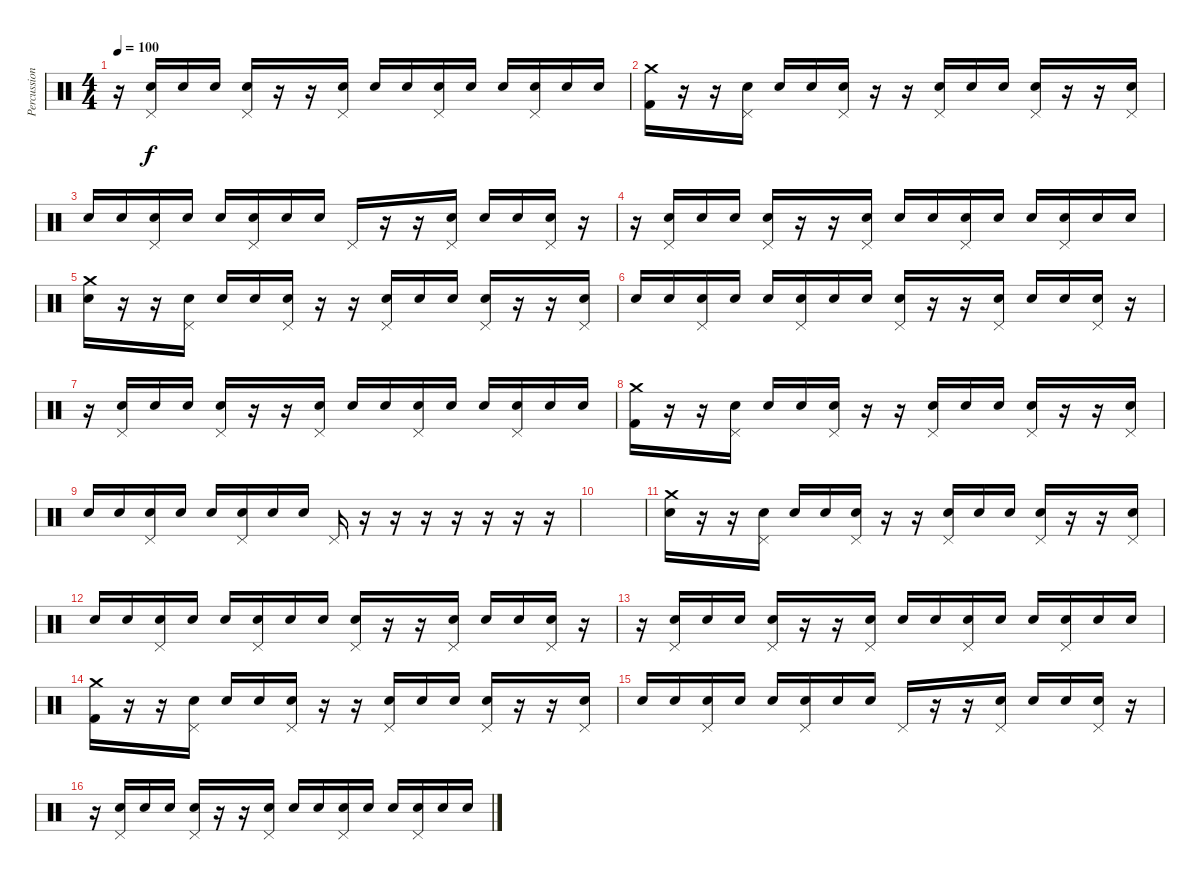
\track ("Percussion" "Percussion") {instrument percussion}
\staff {score}
\articulation defaults
\ts (4 4)
\tempo 100
\clef neutral
\ks c
r.16{dy f} ("Pedal Hi-Hat (hit)" "Snare (hit) 2").16 "Snare (hit) 2".16 "Snare (hit) 2".16 ("Pedal Hi-Hat (hit)" "Snare (hit) 2").16 r.16 r.16 ("Pedal Hi-Hat (hit)" "Snare (hit) 2").16 "Snare (hit) 2".16 "Snare (hit) 2".16 ("Pedal Hi-Hat (hit)" "Snare (hit) 2").16 "Snare (hit) 2".16 "Snare (hit) 2".16 ("Pedal Hi-Hat (hit)" "Snare (hit) 2").16 "Snare (hit) 2".16 "Snare (hit) 2".16 |
("Crash medium (hit)" "Kick (hit) 2").16 r.16 r.16 ("Pedal Hi-Hat (hit)" "Snare (hit) 2").16 "Snare (hit) 2".16 "Snare (hit) 2".16 ("Pedal Hi-Hat (hit)" "Snare (hit) 2").16 r.16 r.16 ("Pedal Hi-Hat (hit)" "Snare (hit) 2").16 "Snare (hit) 2".16 "Snare (hit) 2".16 ("Pedal Hi-Hat (hit)" "Snare (hit) 2").16 r.16 r.16 ("Pedal Hi-Hat (hit)" "Snare (hit) 2").16 |
"Snare (hit) 2".16 "Snare (hit) 2".16 ("Pedal Hi-Hat (hit)" "Snare (hit) 2").16 "Snare (hit) 2".16 "Snare (hit) 2".16 ("Pedal Hi-Hat (hit)" "Snare (hit) 2").16 "Snare (hit) 2".16 "Snare (hit) 2".16 "Pedal Hi-Hat (hit)".16 r.16 r.16 ("Pedal Hi-Hat (hit)" "Snare (hit) 2").16 "Snare (hit) 2".16 "Snare (hit) 2".16 ("Pedal Hi-Hat (hit)" "Snare (hit) 2").16 r.16 |
r.16 ("Pedal Hi-Hat (hit)" "Snare (hit) 2").16 "Snare (hit) 2".16 "Snare (hit) 2".16 ("Pedal Hi-Hat (hit)" "Snare (hit) 2").16 r.16 r.16 ("Pedal Hi-Hat (hit)" "Snare (hit) 2").16 "Snare (hit) 2".16 "Snare (hit) 2".16 ("Pedal Hi-Hat (hit)" "Snare (hit) 2").16 "Snare (hit) 2".16 "Snare (hit) 2".16 ("Pedal Hi-Hat (hit)" "Snare (hit) 2").16 "Snare (hit) 2".16 "Snare (hit) 2".16 |
("Crash medium (hit)" "Snare (hit) 2").16 r.16 r.16 ("Pedal Hi-Hat (hit)" "Snare (hit) 2").16 "Snare (hit) 2".16 "Snare (hit) 2".16 ("Pedal Hi-Hat (hit)" "Snare (hit) 2").16 r.16 r.16 ("Pedal Hi-Hat (hit)" "Snare (hit) 2").16 "Snare (hit) 2".16 "Snare (hit) 2".16 ("Pedal Hi-Hat (hit)" "Snare (hit) 2").16 r.16 r.16 ("Pedal Hi-Hat (hit)" "Snare (hit) 2").16 |
"Snare (hit) 2".16 "Snare (hit) 2".16 ("Pedal Hi-Hat (hit)" "Snare (hit) 2").16 "Snare (hit) 2".16 "Snare (hit) 2".16 ("Pedal Hi-Hat (hit)" "Snare (hit) 2").16 "Snare (hit) 2".16 "Snare (hit) 2".16 ("Pedal Hi-Hat (hit)" "Snare (hit) 2").16 r.16 r.16 ("Pedal Hi-Hat (hit)" "Snare (hit) 2").16 "Snare (hit) 2".16 "Snare (hit) 2".16 ("Pedal Hi-Hat (hit)" "Snare (hit) 2").16 r.16 |
r.16 ("Pedal Hi-Hat (hit)" "Snare (hit) 2").16 "Snare (hit) 2".16 "Snare (hit) 2".16 ("Pedal Hi-Hat (hit)" "Snare (hit) 2").16 r.16 r.16 ("Pedal Hi-Hat (hit)" "Snare (hit) 2").16 "Snare (hit) 2".16 "Snare (hit) 2".16 ("Pedal Hi-Hat (hit)" "Snare (hit) 2").16 "Snare (hit) 2".16 "Snare (hit) 2".16 ("Pedal Hi-Hat (hit)" "Snare (hit) 2").16 "Snare (hit) 2".16 "Snare (hit) 2".16 |
("Crash medium (hit)" "Kick (hit) 2").16 r.16 r.16 ("Pedal Hi-Hat (hit)" "Snare (hit) 2").16 "Snare (hit) 2".16 "Snare (hit) 2".16 ("Pedal Hi-Hat (hit)" "Snare (hit) 2").16 r.16 r.16 ("Pedal Hi-Hat (hit)" "Snare (hit) 2").16 "Snare (hit) 2".16 "Snare (hit) 2".16 ("Pedal Hi-Hat (hit)" "Snare (hit) 2").16 r.16 r.16 ("Pedal Hi-Hat (hit)" "Snare (hit) 2").16 |
"Snare (hit) 2".16 "Snare (hit) 2".16 ("Pedal Hi-Hat (hit)" "Snare (hit) 2").16 "Snare (hit) 2".16 "Snare (hit) 2".16 ("Pedal Hi-Hat (hit)" "Snare (hit) 2").16 "Snare (hit) 2".16 "Snare (hit) 2".16 "Pedal Hi-Hat (hit)".16 r.16 r.16 r.16 r.16 r.16 r.16 r.16 |
|
("Crash medium (hit)" "Snare (hit) 2").16 r.16 r.16 ("Pedal Hi-Hat (hit)" "Snare (hit) 2").16 "Snare (hit) 2".16 "Snare (hit) 2".16 ("Pedal Hi-Hat (hit)" "Snare (hit) 2").16 r.16 r.16 ("Pedal Hi-Hat (hit)" "Snare (hit) 2").16 "Snare (hit) 2".16 "Snare (hit) 2".16 ("Pedal Hi-Hat (hit)" "Snare (hit) 2").16 r.16 r.16 ("Pedal Hi-Hat (hit)" "Snare (hit) 2").16 |
"Snare (hit) 2".16 "Snare (hit) 2".16 ("Pedal Hi-Hat (hit)" "Snare (hit) 2").16 "Snare (hit) 2".16 "Snare (hit) 2".16 ("Pedal Hi-Hat (hit)" "Snare (hit) 2").16 "Snare (hit) 2".16 "Snare (hit) 2".16 ("Pedal Hi-Hat (hit)" "Snare (hit) 2").16 r.16 r.16 ("Pedal Hi-Hat (hit)" "Snare (hit) 2").16 "Snare (hit) 2".16 "Snare (hit) 2".16 ("Pedal Hi-Hat (hit)" "Snare (hit) 2").16 r.16 |
r.16 ("Pedal Hi-Hat (hit)" "Snare (hit) 2").16 "Snare (hit) 2".16 "Snare (hit) 2".16 ("Pedal Hi-Hat (hit)" "Snare (hit) 2").16 r.16 r.16 ("Pedal Hi-Hat (hit)" "Snare (hit) 2").16 "Snare (hit) 2".16 "Snare (hit) 2".16 ("Pedal Hi-Hat (hit)" "Snare (hit) 2").16 "Snare (hit) 2".16 "Snare (hit) 2".16 ("Pedal Hi-Hat (hit)" "Snare (hit) 2").16 "Snare (hit) 2".16 "Snare (hit) 2".16 |
("Crash medium (hit)" "Kick (hit) 2").16 r.16 r.16 ("Pedal Hi-Hat (hit)" "Snare (hit) 2").16 "Snare (hit) 2".16 "Snare (hit) 2".16 ("Pedal Hi-Hat (hit)" "Snare (hit) 2").16 r.16 r.16 ("Pedal Hi-Hat (hit)" "Snare (hit) 2").16 "Snare (hit) 2".16 "Snare (hit) 2".16 ("Pedal Hi-Hat (hit)" "Snare (hit) 2").16 r.16 r.16 ("Pedal Hi-Hat (hit)" "Snare (hit) 2").16 |
"Snare (hit) 2".16 "Snare (hit) 2".16 ("Pedal Hi-Hat (hit)" "Snare (hit) 2").16 "Snare (hit) 2".16 "Snare (hit) 2".16 ("Pedal Hi-Hat (hit)" "Snare (hit) 2").16 "Snare (hit) 2".16 "Snare (hit) 2".16 "Pedal Hi-Hat (hit)".16 r.16 r.16 ("Pedal Hi-Hat (hit)" "Snare (hit) 2").16 "Snare (hit) 2".16 "Snare (hit) 2".16 ("Pedal Hi-Hat (hit)" "Snare (hit) 2").16 r.16 |
r.16 ("Pedal Hi-Hat (hit)" "Snare (hit) 2").16 "Snare (hit) 2".16 "Snare (hit) 2".16 ("Pedal Hi-Hat (hit)" "Snare (hit) 2").16 r.16 r.16 ("Pedal Hi-Hat (hit)" "Snare (hit) 2").16 "Snare (hit) 2".16 "Snare (hit) 2".16 ("Pedal Hi-Hat (hit)" "Snare (hit) 2").16 "Snare (hit) 2".16 "Snare (hit) 2".16 ("Pedal Hi-Hat (hit)" "Snare (hit) 2").16 "Snare (hit) 2".16 "Snare (hit) 2".16
